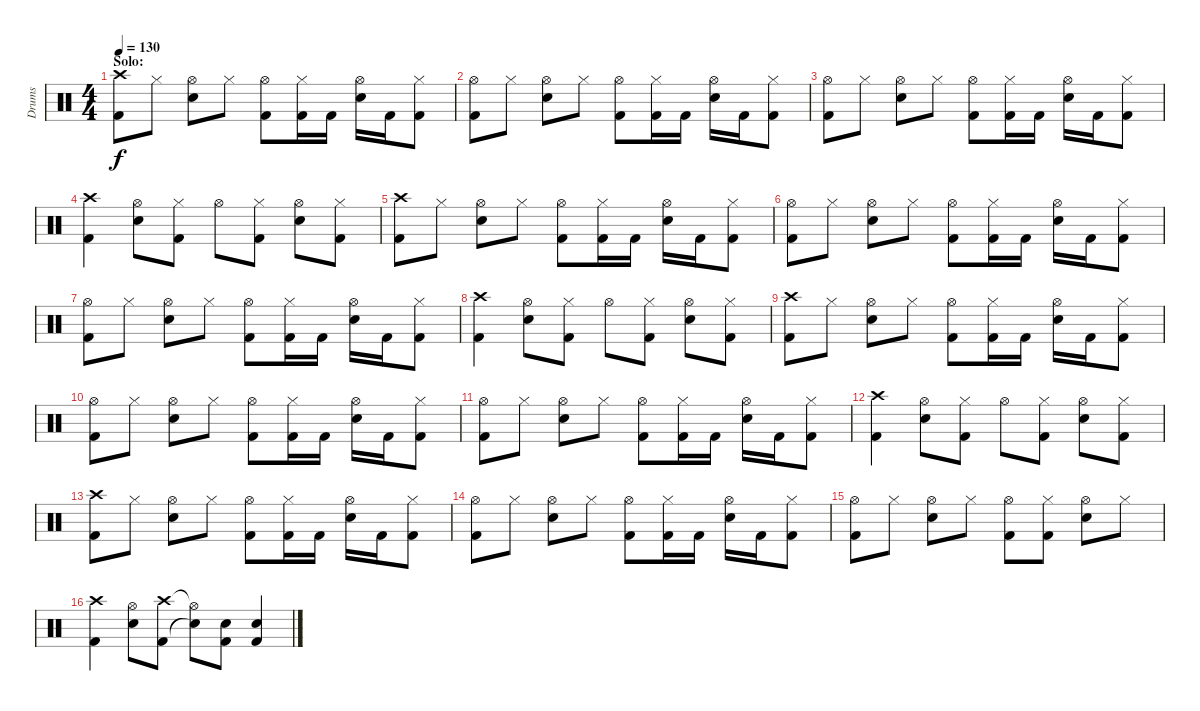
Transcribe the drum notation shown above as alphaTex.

\track ("Drums" "Drums") {instrument percussion}
\staff {score}
\articulation defaults
\ts (4 4)
\section ("" "Solo:")
\tempo 130
\clef neutral
\ks c
("Crash high (hit)" "Kick (hit) 2").8{dy f} "Hi-Hat (closed)".8 ("Hi-Hat (open)" "Electric Snare (hit)").8 "Hi-Hat (closed)".8 ("Hi-Hat (open)" "Kick (hit) 2").8 ("Hi-Hat (closed)" "Kick (hit) 2").16 "Kick (hit) 2".16 ("Hi-Hat (open)" "Electric Snare (hit)").16 "Kick (hit) 2".16 ("Hi-Hat (closed)" "Kick (hit) 2").8 |
("Hi-Hat (open)" "Kick (hit) 2").8 "Hi-Hat (closed)".8 ("Hi-Hat (open)" "Electric Snare (hit)").8 "Hi-Hat (closed)".8 ("Hi-Hat (open)" "Kick (hit) 2").8 ("Hi-Hat (closed)" "Kick (hit) 2").16 "Kick (hit) 2".16 ("Hi-Hat (open)" "Electric Snare (hit)").16 "Kick (hit) 2".16 ("Hi-Hat (closed)" "Kick (hit) 2").8 |
("Hi-Hat (open)" "Kick (hit) 2").8 "Hi-Hat (closed)".8 ("Hi-Hat (open)" "Electric Snare (hit)").8 "Hi-Hat (closed)".8 ("Hi-Hat (open)" "Kick (hit) 2").8 ("Hi-Hat (closed)" "Kick (hit) 2").16 "Kick (hit) 2".16 ("Hi-Hat (open)" "Electric Snare (hit)").16 "Kick (hit) 2".16 ("Hi-Hat (closed)" "Kick (hit) 2").8 |
("Crash high (hit)" "Kick (hit) 2").4 ("Hi-Hat (open)" "Electric Snare (hit)").8 ("Hi-Hat (closed)" "Kick (hit) 2").8 "Hi-Hat (open)".8 ("Hi-Hat (closed)" "Kick (hit) 2").8 ("Hi-Hat (open)" "Electric Snare (hit)").8 ("Hi-Hat (closed)" "Kick (hit) 2").8 |
("Crash high (hit)" "Kick (hit) 2").8 "Hi-Hat (closed)".8 ("Hi-Hat (open)" "Electric Snare (hit)").8 "Hi-Hat (closed)".8 ("Hi-Hat (open)" "Kick (hit) 2").8 ("Hi-Hat (closed)" "Kick (hit) 2").16 "Kick (hit) 2".16 ("Hi-Hat (open)" "Electric Snare (hit)").16 "Kick (hit) 2".16 ("Hi-Hat (closed)" "Kick (hit) 2").8 |
("Hi-Hat (open)" "Kick (hit) 2").8 "Hi-Hat (closed)".8 ("Hi-Hat (open)" "Electric Snare (hit)").8 "Hi-Hat (closed)".8 ("Hi-Hat (open)" "Kick (hit) 2").8 ("Hi-Hat (closed)" "Kick (hit) 2").16 "Kick (hit) 2".16 ("Hi-Hat (open)" "Electric Snare (hit)").16 "Kick (hit) 2".16 ("Hi-Hat (closed)" "Kick (hit) 2").8 |
("Hi-Hat (open)" "Kick (hit) 2").8 "Hi-Hat (closed)".8 ("Hi-Hat (open)" "Electric Snare (hit)").8 "Hi-Hat (closed)".8 ("Hi-Hat (open)" "Kick (hit) 2").8 ("Hi-Hat (closed)" "Kick (hit) 2").16 "Kick (hit) 2".16 ("Hi-Hat (open)" "Electric Snare (hit)").16 "Kick (hit) 2".16 ("Hi-Hat (closed)" "Kick (hit) 2").8 |
("Crash high (hit)" "Kick (hit) 2").4 ("Hi-Hat (open)" "Electric Snare (hit)").8 ("Hi-Hat (closed)" "Kick (hit) 2").8 "Hi-Hat (open)".8 ("Hi-Hat (closed)" "Kick (hit) 2").8 ("Hi-Hat (open)" "Electric Snare (hit)").8 ("Hi-Hat (closed)" "Kick (hit) 2").8 |
("Crash high (hit)" "Kick (hit) 2").8 "Hi-Hat (closed)".8 ("Hi-Hat (open)" "Electric Snare (hit)").8 "Hi-Hat (closed)".8 ("Hi-Hat (open)" "Kick (hit) 2").8 ("Hi-Hat (closed)" "Kick (hit) 2").16 "Kick (hit) 2".16 ("Hi-Hat (open)" "Electric Snare (hit)").16 "Kick (hit) 2".16 ("Hi-Hat (closed)" "Kick (hit) 2").8 |
("Hi-Hat (open)" "Kick (hit) 2").8 "Hi-Hat (closed)".8 ("Hi-Hat (open)" "Electric Snare (hit)").8 "Hi-Hat (closed)".8 ("Hi-Hat (open)" "Kick (hit) 2").8 ("Hi-Hat (closed)" "Kick (hit) 2").16 "Kick (hit) 2".16 ("Hi-Hat (open)" "Electric Snare (hit)").16 "Kick (hit) 2".16 ("Hi-Hat (closed)" "Kick (hit) 2").8 |
("Hi-Hat (open)" "Kick (hit) 2").8 "Hi-Hat (closed)".8 ("Hi-Hat (open)" "Electric Snare (hit)").8 "Hi-Hat (closed)".8 ("Hi-Hat (open)" "Kick (hit) 2").8 ("Hi-Hat (closed)" "Kick (hit) 2").16 "Kick (hit) 2".16 ("Hi-Hat (open)" "Electric Snare (hit)").16 "Kick (hit) 2".16 ("Hi-Hat (closed)" "Kick (hit) 2").8 |
("Crash high (hit)" "Kick (hit) 2").4 ("Hi-Hat (open)" "Electric Snare (hit)").8 ("Hi-Hat (closed)" "Kick (hit) 2").8 "Hi-Hat (open)".8 ("Hi-Hat (closed)" "Kick (hit) 2").8 ("Hi-Hat (open)" "Electric Snare (hit)").8 ("Hi-Hat (closed)" "Kick (hit) 2").8 |
("Crash high (hit)" "Kick (hit) 2").8 "Hi-Hat (closed)".8 ("Hi-Hat (open)" "Electric Snare (hit)").8 "Hi-Hat (closed)".8 ("Hi-Hat (open)" "Kick (hit) 2").8 ("Hi-Hat (closed)" "Kick (hit) 2").16 "Kick (hit) 2".16 ("Hi-Hat (open)" "Electric Snare (hit)").16 "Kick (hit) 2".16 ("Hi-Hat (closed)" "Kick (hit) 2").8 |
("Hi-Hat (open)" "Kick (hit) 2").8 "Hi-Hat (closed)".8 ("Hi-Hat (open)" "Electric Snare (hit)").8 "Hi-Hat (closed)".8 ("Hi-Hat (open)" "Kick (hit) 2").8 ("Hi-Hat (closed)" "Kick (hit) 2").16 "Kick (hit) 2".16 ("Hi-Hat (open)" "Electric Snare (hit)").16 "Kick (hit) 2".16 ("Hi-Hat (closed)" "Kick (hit) 2").8 |
("Hi-Hat (open)" "Kick (hit) 2").8 "Hi-Hat (closed)".8 ("Hi-Hat (open)" "Electric Snare (hit)").8 "Hi-Hat (closed)".8 ("Hi-Hat (open)" "Kick (hit) 2").8 ("Hi-Hat (closed)" "Kick (hit) 2").8 ("Hi-Hat (open)" "Electric Snare (hit)").8 "Hi-Hat (closed)".8 |
("Crash high (hit)" "Kick (hit) 2").4 ("Hi-Hat (open)" "Electric Snare (hit)").8 ("Crash high (hit)" "Kick (hit) 2").8 ("Hi-Hat (open)"{t} "Snare (hit)"{t}).8 ("Electric Snare (hit)" "Kick (hit) 2").8 ("Electric Snare (hit)" "Kick (hit) 2").4
